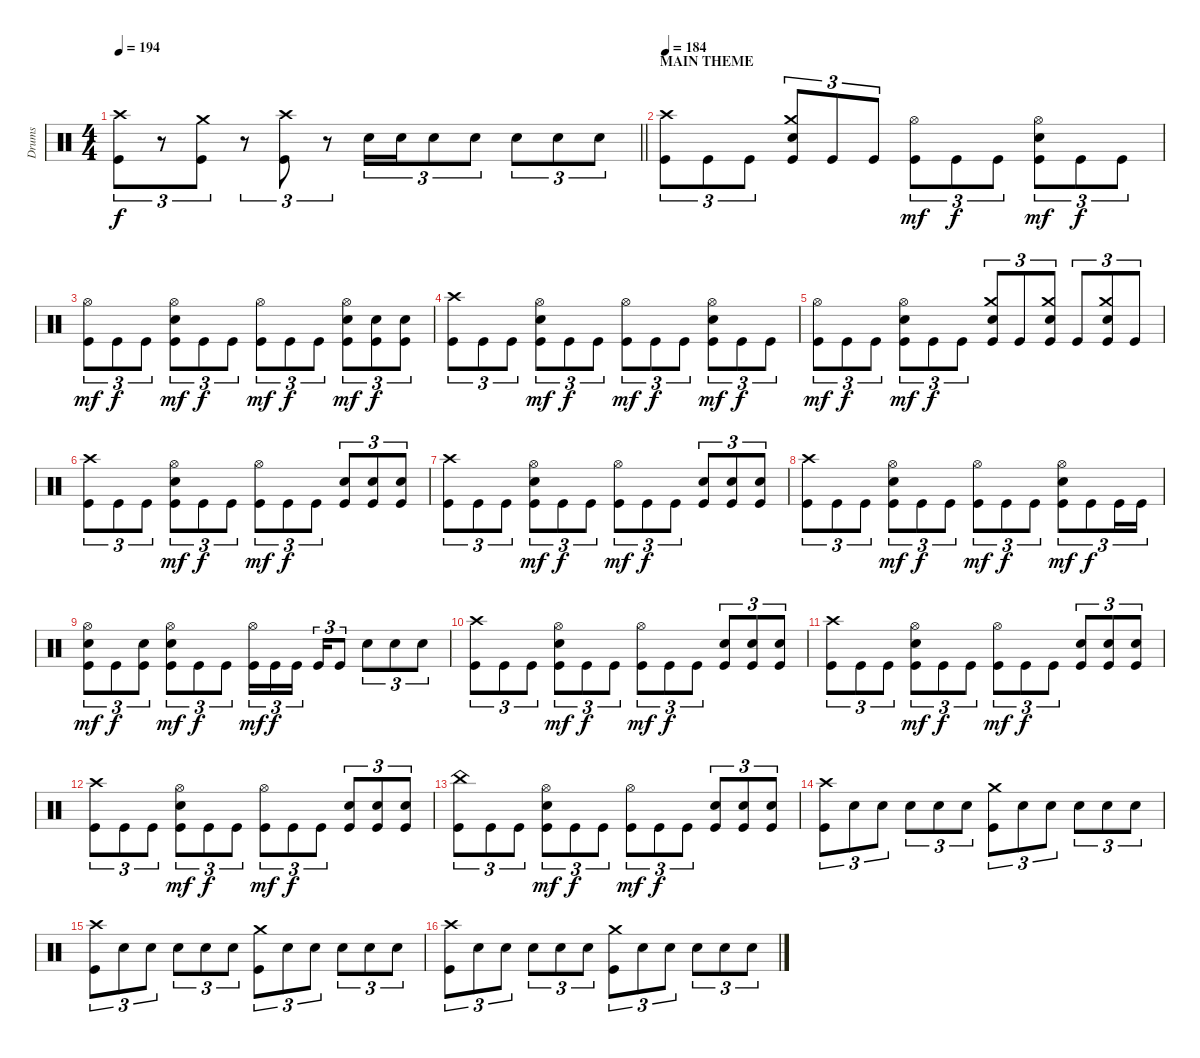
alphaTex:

\track ("Drums" "Drums") {instrument percussion}
\staff {score}
\articulation defaults
\ts (4 4)
\tempo 194
\clef neutral
\barLineRight lightlight
\ks c
("Crash high (hit)" "Kick (hit)").8{tu (3 2) dy f} r.8{tu (3 2)} ("Crash medium (hit)" "Kick (hit)").8{tu (3 2)} r.8{tu (3 2)} ("Crash high (hit)" "Kick (hit)").8{tu (3 2)} r.8{tu (3 2)} "Electric Snare (hit)".16{tu (3 2)} "Electric Snare (hit)".16{tu (3 2)} "Electric Snare (hit)".8{tu (3 2)} "Electric Snare (hit)".8{tu (3 2)} "Electric Snare (hit)".8{tu (3 2)} "Electric Snare (hit)".8{tu (3 2)} "Electric Snare (hit)".8{tu (3 2)} |
\section ("" "MAIN THEME")
\tempo 184
("Crash high (hit)" "Kick (hit)").8{tu (3 2)} "Kick (hit)".8{tu (3 2)} "Kick (hit)".8{tu (3 2)} ("Crash medium (hit)" "Electric Snare (hit)" "Kick (hit)").8{tu (3 2)} "Kick (hit)".8{tu (3 2)} "Kick (hit)".8{tu (3 2)} ("Hi-Hat (open)" "Kick (hit)").8{tu (3 2) dy mf} "Kick (hit)".8{tu (3 2) dy f} "Kick (hit)".8{tu (3 2)} ("Hi-Hat (open)" "Electric Snare (hit)" "Kick (hit)").8{tu (3 2) dy mf} "Kick (hit)".8{tu (3 2) dy f} "Kick (hit)".8{tu (3 2)} |
("Hi-Hat (open)" "Kick (hit)").8{tu (3 2) dy mf} "Kick (hit)".8{tu (3 2) dy f} "Kick (hit)".8{tu (3 2)} ("Hi-Hat (open)" "Electric Snare (hit)" "Kick (hit)").8{tu (3 2) dy mf} "Kick (hit)".8{tu (3 2) dy f} "Kick (hit)".8{tu (3 2)} ("Hi-Hat (open)" "Kick (hit)").8{tu (3 2) dy mf} "Kick (hit)".8{tu (3 2) dy f} "Kick (hit)".8{tu (3 2)} ("Hi-Hat (open)" "Electric Snare (hit)" "Kick (hit)").8{tu (3 2) dy mf} ("Electric Snare (hit)" "Kick (hit)").8{tu (3 2) dy f} ("Electric Snare (hit)" "Kick (hit)").8{tu (3 2)} |
("Crash high (hit)" "Kick (hit)").8{tu (3 2)} "Kick (hit)".8{tu (3 2)} "Kick (hit)".8{tu (3 2)} ("Hi-Hat (open)" "Electric Snare (hit)" "Kick (hit)").8{tu (3 2) dy mf} "Kick (hit)".8{tu (3 2) dy f} "Kick (hit)".8{tu (3 2)} ("Hi-Hat (open)" "Kick (hit)").8{tu (3 2) dy mf} "Kick (hit)".8{tu (3 2) dy f} "Kick (hit)".8{tu (3 2)} ("Hi-Hat (open)" "Electric Snare (hit)" "Kick (hit)").8{tu (3 2) dy mf} "Kick (hit)".8{tu (3 2) dy f} "Kick (hit)".8{tu (3 2)} |
("Hi-Hat (open)" "Kick (hit)").8{tu (3 2) dy mf} "Kick (hit)".8{tu (3 2) dy f} "Kick (hit)".8{tu (3 2)} ("Hi-Hat (open)" "Electric Snare (hit)" "Kick (hit)").8{tu (3 2) dy mf} "Kick (hit)".8{tu (3 2) dy f} "Kick (hit)".8{tu (3 2)} ("Crash medium (hit)" "Electric Snare (hit)" "Kick (hit)").8{tu (3 2)} "Kick (hit)".8{tu (3 2)} ("Crash medium (hit)" "Electric Snare (hit)" "Kick (hit)").8{tu (3 2)} "Kick (hit)".8{tu (3 2)} ("Crash medium (hit)" "Electric Snare (hit)" "Kick (hit)").8{tu (3 2)} "Kick (hit)".8{tu (3 2)} |
("Crash high (hit)" "Kick (hit)").8{tu (3 2)} "Kick (hit)".8{tu (3 2)} "Kick (hit)".8{tu (3 2)} ("Hi-Hat (open)" "Electric Snare (hit)" "Kick (hit)").8{tu (3 2) dy mf} "Kick (hit)".8{tu (3 2) dy f} "Kick (hit)".8{tu (3 2)} ("Hi-Hat (open)" "Kick (hit)").8{tu (3 2) dy mf} "Kick (hit)".8{tu (3 2) dy f} "Kick (hit)".8{tu (3 2)} ("Electric Snare (hit)" "Kick (hit)").8{tu (3 2)} ("Electric Snare (hit)" "Kick (hit)").8{tu (3 2)} ("Electric Snare (hit)" "Kick (hit)").8{tu (3 2)} |
("Crash high (hit)" "Kick (hit)").8{tu (3 2)} "Kick (hit)".8{tu (3 2)} "Kick (hit)".8{tu (3 2)} ("Hi-Hat (open)" "Electric Snare (hit)" "Kick (hit)").8{tu (3 2) dy mf} "Kick (hit)".8{tu (3 2) dy f} "Kick (hit)".8{tu (3 2)} ("Hi-Hat (open)" "Kick (hit)").8{tu (3 2) dy mf} "Kick (hit)".8{tu (3 2) dy f} "Kick (hit)".8{tu (3 2)} ("Electric Snare (hit)" "Kick (hit)").8{tu (3 2)} ("Electric Snare (hit)" "Kick (hit)").8{tu (3 2)} ("Electric Snare (hit)" "Kick (hit)").8{tu (3 2)} |
("Crash high (hit)" "Kick (hit)").8{tu (3 2)} "Kick (hit)".8{tu (3 2)} "Kick (hit)".8{tu (3 2)} ("Hi-Hat (open)" "Electric Snare (hit)" "Kick (hit)").8{tu (3 2) dy mf} "Kick (hit)".8{tu (3 2) dy f} "Kick (hit)".8{tu (3 2)} ("Hi-Hat (open)" "Kick (hit)").8{tu (3 2) dy mf} "Kick (hit)".8{tu (3 2) dy f} "Kick (hit)".8{tu (3 2)} ("Hi-Hat (open)" "Electric Snare (hit)" "Kick (hit)").8{tu (3 2) dy mf} "Kick (hit)".8{tu (3 2) dy f} "Kick (hit)".16{tu (3 2)} "Kick (hit)".16{tu (3 2)} |
("Hi-Hat (open)" "Electric Snare (hit)" "Kick (hit)").8{tu (3 2) dy mf} "Kick (hit)".8{tu (3 2) dy f} ("Electric Snare (hit)" "Kick (hit)").8{tu (3 2)} ("Hi-Hat (open)" "Electric Snare (hit)" "Kick (hit)").8{tu (3 2) dy mf} "Kick (hit)".8{tu (3 2) dy f} "Kick (hit)".8{tu (3 2)} ("Hi-Hat (open)" "Kick (hit)").16{tu (3 2) dy mf} "Kick (hit)".16{tu (3 2) dy f} "Kick (hit)".16{tu (3 2) beam splitsecondary} "Kick (hit)".16{tu (3 2)} "Kick (hit)".8{tu (3 2)} "Electric Snare (hit)".8{tu (3 2)} "Electric Snare (hit)".8{tu (3 2)} "Electric Snare (hit)".8{tu (3 2)} |
("Crash high (hit)" "Kick (hit)").8{tu (3 2)} "Kick (hit)".8{tu (3 2)} "Kick (hit)".8{tu (3 2)} ("Hi-Hat (open)" "Electric Snare (hit)" "Kick (hit)").8{tu (3 2) dy mf} "Kick (hit)".8{tu (3 2) dy f} "Kick (hit)".8{tu (3 2)} ("Hi-Hat (open)" "Kick (hit)").8{tu (3 2) dy mf} "Kick (hit)".8{tu (3 2) dy f} "Kick (hit)".8{tu (3 2)} ("Electric Snare (hit)" "Kick (hit)").8{tu (3 2)} ("Electric Snare (hit)" "Kick (hit)").8{tu (3 2)} ("Electric Snare (hit)" "Kick (hit)").8{tu (3 2)} |
("Crash high (hit)" "Kick (hit)").8{tu (3 2)} "Kick (hit)".8{tu (3 2)} "Kick (hit)".8{tu (3 2)} ("Hi-Hat (open)" "Electric Snare (hit)" "Kick (hit)").8{tu (3 2) dy mf} "Kick (hit)".8{tu (3 2) dy f} "Kick (hit)".8{tu (3 2)} ("Hi-Hat (open)" "Kick (hit)").8{tu (3 2) dy mf} "Kick (hit)".8{tu (3 2) dy f} "Kick (hit)".8{tu (3 2)} ("Electric Snare (hit)" "Kick (hit)").8{tu (3 2)} ("Electric Snare (hit)" "Kick (hit)").8{tu (3 2)} ("Electric Snare (hit)" "Kick (hit)").8{tu (3 2)} |
("Crash high (hit)" "Kick (hit)").8{tu (3 2)} "Kick (hit)".8{tu (3 2)} "Kick (hit)".8{tu (3 2)} ("Hi-Hat (open)" "Electric Snare (hit)" "Kick (hit)").8{tu (3 2) dy mf} "Kick (hit)".8{tu (3 2) dy f} "Kick (hit)".8{tu (3 2)} ("Hi-Hat (open)" "Kick (hit)").8{tu (3 2) dy mf} "Kick (hit)".8{tu (3 2) dy f} "Kick (hit)".8{tu (3 2)} ("Electric Snare (hit)" "Kick (hit)").8{tu (3 2)} ("Electric Snare (hit)" "Kick (hit)").8{tu (3 2)} ("Electric Snare (hit)" "Kick (hit)").8{tu (3 2)} |
("China (hit)" "Kick (hit)").8{tu (3 2)} "Kick (hit)".8{tu (3 2)} "Kick (hit)".8{tu (3 2)} ("Hi-Hat (open)" "Electric Snare (hit)" "Kick (hit)").8{tu (3 2) dy mf} "Kick (hit)".8{tu (3 2) dy f} "Kick (hit)".8{tu (3 2)} ("Hi-Hat (open)" "Kick (hit)").8{tu (3 2) dy mf} "Kick (hit)".8{tu (3 2) dy f} "Kick (hit)".8{tu (3 2)} ("Electric Snare (hit)" "Kick (hit)").8{tu (3 2)} ("Electric Snare (hit)" "Kick (hit)").8{tu (3 2)} ("Electric Snare (hit)" "Kick (hit)").8{tu (3 2)} |
("Crash high (hit)" "Kick (hit)").8{tu (3 2)} "Electric Snare (hit)".8{tu (3 2)} "Electric Snare (hit)".8{tu (3 2)} "Electric Snare (hit)".8{tu (3 2)} "Electric Snare (hit)".8{tu (3 2)} "Electric Snare (hit)".8{tu (3 2)} ("Crash medium (hit)" "Kick (hit)").8{tu (3 2)} "Electric Snare (hit)".8{tu (3 2)} "Electric Snare (hit)".8{tu (3 2)} "Electric Snare (hit)".8{tu (3 2)} "Electric Snare (hit)".8{tu (3 2)} "Electric Snare (hit)".8{tu (3 2)} |
("Crash high (hit)" "Kick (hit)").8{tu (3 2)} "Electric Snare (hit)".8{tu (3 2)} "Electric Snare (hit)".8{tu (3 2)} "Electric Snare (hit)".8{tu (3 2)} "Electric Snare (hit)".8{tu (3 2)} "Electric Snare (hit)".8{tu (3 2)} ("Crash medium (hit)" "Kick (hit)").8{tu (3 2)} "Electric Snare (hit)".8{tu (3 2)} "Electric Snare (hit)".8{tu (3 2)} "Electric Snare (hit)".8{tu (3 2)} "Electric Snare (hit)".8{tu (3 2)} "Electric Snare (hit)".8{tu (3 2)} |
("Crash high (hit)" "Kick (hit)").8{tu (3 2)} "Electric Snare (hit)".8{tu (3 2)} "Electric Snare (hit)".8{tu (3 2)} "Electric Snare (hit)".8{tu (3 2)} "Electric Snare (hit)".8{tu (3 2)} "Electric Snare (hit)".8{tu (3 2)} ("Crash medium (hit)" "Kick (hit)").8{tu (3 2)} "Electric Snare (hit)".8{tu (3 2)} "Electric Snare (hit)".8{tu (3 2)} "Electric Snare (hit)".8{tu (3 2)} "Electric Snare (hit)".8{tu (3 2)} "Electric Snare (hit)".8{tu (3 2)}
